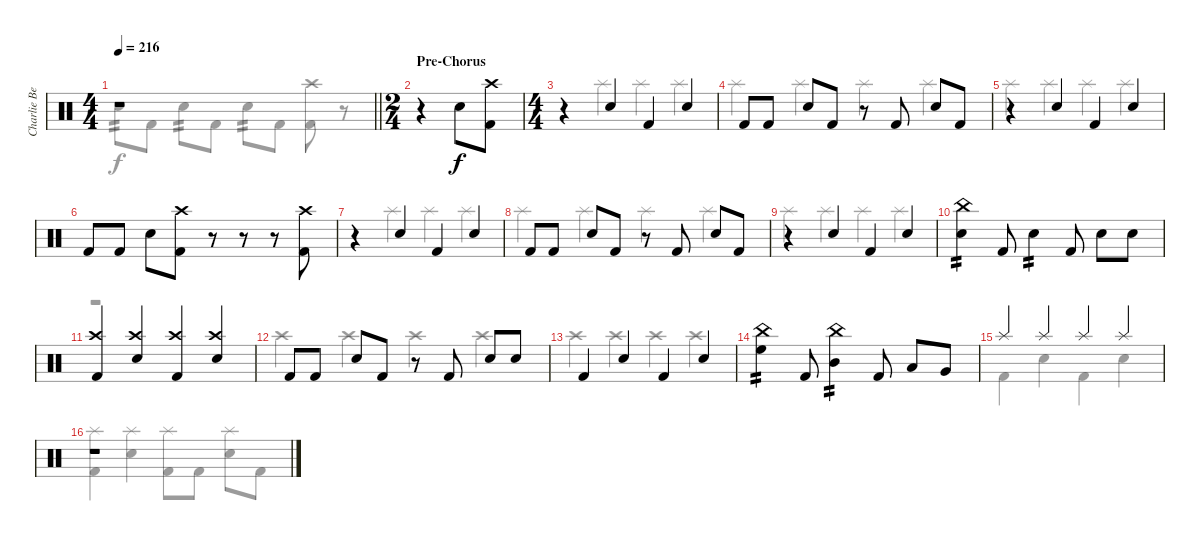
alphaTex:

\track ("Charlie Benante" "Charlie Be") {instrument percussion}
\staff {score}
\articulation defaults
\voice
\ts (4 4)
\tempo 216
\clef neutral
\barLineRight lightlight
\ks c
r.1{dy f} |
\ts (2 4)
\section ("" "Pre-Chorus")
r.4 "Electric Snare (hit)".8 ("Crash high (hit)" "Kick (hit) 2").8 |
\ts (4 4)
r.4 "Electric Snare (hit)".4 "Kick (hit) 2".4 "Electric Snare (hit)".4 |
"Kick (hit) 2".8 "Kick (hit) 2".8 "Electric Snare (hit)".8 "Kick (hit) 2".8 r.8 "Kick (hit) 2".8 "Electric Snare (hit)".8 "Kick (hit) 2".8 |
r.4 "Electric Snare (hit)".4 "Kick (hit) 2".4 "Electric Snare (hit)".4 |
"Kick (hit) 2".8 "Kick (hit) 2".8 "Electric Snare (hit)".8 ("Crash high (hit)" "Kick (hit) 2").8 r.8 r.8 r.8 ("Crash high (hit)" "Kick (hit) 2").8 |
r.4 "Electric Snare (hit)".4 "Kick (hit) 2".4 "Electric Snare (hit)".4 |
"Kick (hit) 2".8 "Kick (hit) 2".8 "Electric Snare (hit)".8 "Kick (hit) 2".8 r.8 "Kick (hit) 2".8 "Electric Snare (hit)".8 "Kick (hit) 2".8 |
r.4 "Electric Snare (hit)".4 "Kick (hit) 2".4 "Electric Snare (hit)".4 |
("China (hit)" "Electric Snare (hit)").4{tp 2} "Kick (hit) 2".8 "Electric Snare (hit)".4{tp 2} "Kick (hit) 2".8 "Electric Snare (hit)".8 "Electric Snare (hit)".8 |
("Crash high (hit)" "Kick (hit) 2").4 ("Crash high (hit)" "Electric Snare (hit)").4 ("Crash high (hit)" "Kick (hit) 2").4 ("Crash high (hit)" "Electric Snare (hit)").4 |
"Kick (hit) 2".8 "Kick (hit) 2".8 "Electric Snare (hit)".8 "Kick (hit) 2".8 r.8 "Kick (hit) 2".8 "Electric Snare (hit)".8 "Electric Snare (hit)".8 |
"Kick (hit) 2".4 "Electric Snare (hit)".4 "Kick (hit) 2".4 "Electric Snare (hit)".4 |
("China (hit)" "High Floor Tom (hit)").4{tp 2} "Kick (hit) 2".8 ("China (hit)" "Mid Tom (hit)").4{tp 2} "Kick (hit) 2".8 "Low Tom (hit)".8 "Very Low Tom (hit)".8 |
"Splash (hit)".4 "Splash (hit)".4 "Splash (hit)".4 "Splash (hit)".4 |
r.1
\voice
\clef neutral
\ottava regular
\simile none
\barLineRight lightlight
\ks c "Electric Snare (hit)".8{tp 2 dy f} "Kick (hit) 2".8 "Electric Snare (hit)".8{tp 2} "Kick (hit) 2".8 "Electric Snare (hit)".8{tp 2} "Kick (hit) 2".8
("Crash high (hit)" "Kick (hit) 2").8 r.8 |
|
r.4 "Splash (hit)".4 "Splash (hit)".4 "Splash (hit)".4 |
"Splash (hit)".4 "Splash (hit)".4 "Splash (hit)".4 "Splash (hit)".4 |
"Splash (hit)".4 "Splash (hit)".4 "Splash (hit)".4 "Splash (hit)".4 |
|
r.4 "Splash (hit)".4 "Splash (hit)".4 "Splash (hit)".4 |
"Splash (hit)".4 "Splash (hit)".4 "Splash (hit)".4 "Splash (hit)".4 |
"Splash (hit)".4 "Splash (hit)".4 "Splash (hit)".4 "Splash (hit)".4 |
|
r.1 |
"Crash high (hit)".4 "Crash high (hit)".4 "Crash high (hit)".4 "Crash high (hit)".4 |
"Crash high (hit)".4 "Crash high (hit)".4 "Crash high (hit)".4 "Crash high (hit)".4 |
|
"Kick (hit) 2".4 "Electric Snare (hit)".4 "Kick (hit) 2".4 "Electric Snare (hit)".4 |
("Splash (hit)" "Kick (hit) 2").4 ("Splash (hit)" "Electric Snare (hit)").4 ("Splash (hit)" "Kick (hit) 2").8 "Kick (hit) 2".8 ("Splash (hit)" "Electric Snare (hit)").8 "Kick (hit) 2".8
